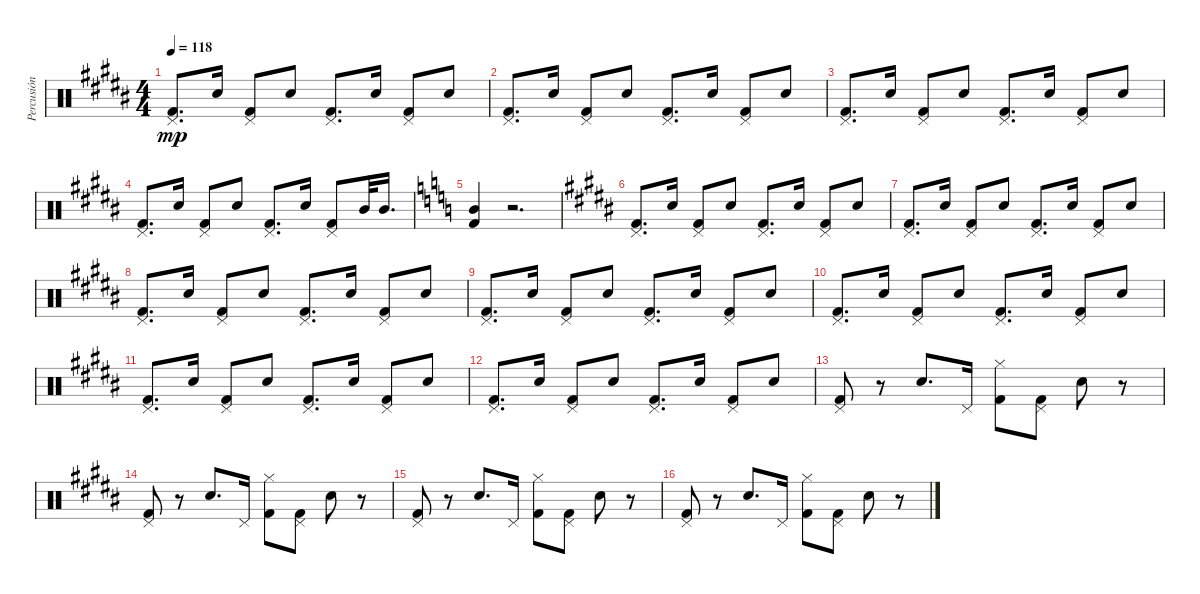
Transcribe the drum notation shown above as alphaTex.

\track ("Percusión" "Percusión") {instrument percussion}
\staff {score}
\articulation defaults
\ts (4 4)
\tempo 118
\clef neutral
\ks b
("Pedal Hi-Hat (hit)" "Kick (hit) 2").8{d dy mp} "Snare (hit) 2".16 ("Pedal Hi-Hat (hit)" "Kick (hit) 2").8 "Snare (hit) 2".8 ("Pedal Hi-Hat (hit)" "Kick (hit) 2").8{d} "Snare (hit) 2".16 ("Pedal Hi-Hat (hit)" "Kick (hit) 2").8 "Snare (hit) 2".8 |
("Pedal Hi-Hat (hit)" "Kick (hit) 2").8{d} "Snare (hit) 2".16 ("Pedal Hi-Hat (hit)" "Kick (hit) 2").8 "Snare (hit) 2".8 ("Pedal Hi-Hat (hit)" "Kick (hit) 2").8{d} "Snare (hit) 2".16 ("Pedal Hi-Hat (hit)" "Kick (hit) 2").8 "Snare (hit) 2".8 |
("Pedal Hi-Hat (hit)" "Kick (hit) 2").8{d} "Snare (hit) 2".16 ("Pedal Hi-Hat (hit)" "Kick (hit) 2").8 "Snare (hit) 2".8 ("Pedal Hi-Hat (hit)" "Kick (hit) 2").8{d} "Snare (hit) 2".16 ("Pedal Hi-Hat (hit)" "Kick (hit) 2").8 "Snare (hit) 2".8 |
("Pedal Hi-Hat (hit)" "Kick (hit) 2").8{d} "Snare (hit) 2".16 ("Pedal Hi-Hat (hit)" "Kick (hit) 2").8 "Snare (hit) 2".8 ("Pedal Hi-Hat (hit)" "Kick (hit) 2").8{d} "Snare (hit) 2".16 ("Pedal Hi-Hat (hit)" "Kick (hit) 2").8 "Mid Tom (hit)".32 "Mid Tom (hit)".16{d} |
\ks c
("Mid Tom (hit)" "Kick (hit) 2").4 r.2{d} |
\ks b
("Pedal Hi-Hat (hit)" "Kick (hit) 2").8{d} "Snare (hit) 2".16 ("Pedal Hi-Hat (hit)" "Kick (hit) 2").8 "Snare (hit) 2".8 ("Pedal Hi-Hat (hit)" "Kick (hit) 2").8{d} "Snare (hit) 2".16 ("Pedal Hi-Hat (hit)" "Kick (hit) 2").8 "Snare (hit) 2".8 |
("Pedal Hi-Hat (hit)" "Kick (hit) 2").8{d} "Snare (hit) 2".16 ("Pedal Hi-Hat (hit)" "Kick (hit) 2").8 "Snare (hit) 2".8 ("Pedal Hi-Hat (hit)" "Kick (hit) 2").8{d} "Snare (hit) 2".16 ("Pedal Hi-Hat (hit)" "Kick (hit) 2").8 "Snare (hit) 2".8 |
("Pedal Hi-Hat (hit)" "Kick (hit) 2").8{d} "Snare (hit) 2".16 ("Pedal Hi-Hat (hit)" "Kick (hit) 2").8 "Snare (hit) 2".8 ("Pedal Hi-Hat (hit)" "Kick (hit) 2").8{d} "Snare (hit) 2".16 ("Pedal Hi-Hat (hit)" "Kick (hit) 2").8 "Snare (hit) 2".8 |
("Pedal Hi-Hat (hit)" "Kick (hit) 2").8{d} "Snare (hit) 2".16 ("Pedal Hi-Hat (hit)" "Kick (hit) 2").8 "Snare (hit) 2".8 ("Pedal Hi-Hat (hit)" "Kick (hit) 2").8{d} "Snare (hit) 2".16 ("Pedal Hi-Hat (hit)" "Kick (hit) 2").8 "Snare (hit) 2".8 |
("Pedal Hi-Hat (hit)" "Kick (hit) 2").8{d} "Snare (hit) 2".16 ("Pedal Hi-Hat (hit)" "Kick (hit) 2").8 "Snare (hit) 2".8 ("Pedal Hi-Hat (hit)" "Kick (hit) 2").8{d} "Snare (hit) 2".16 ("Pedal Hi-Hat (hit)" "Kick (hit) 2").8 "Snare (hit) 2".8 |
("Pedal Hi-Hat (hit)" "Kick (hit) 2").8{d} "Snare (hit) 2".16 ("Pedal Hi-Hat (hit)" "Kick (hit) 2").8 "Snare (hit) 2".8 ("Pedal Hi-Hat (hit)" "Kick (hit) 2").8{d} "Snare (hit) 2".16 ("Pedal Hi-Hat (hit)" "Kick (hit) 2").8 "Snare (hit) 2".8 |
("Pedal Hi-Hat (hit)" "Kick (hit) 2").8{d} "Snare (hit) 2".16 ("Pedal Hi-Hat (hit)" "Kick (hit) 2").8 "Snare (hit) 2".8 ("Pedal Hi-Hat (hit)" "Kick (hit) 2").8{d} "Snare (hit) 2".16 ("Pedal Hi-Hat (hit)" "Kick (hit) 2").8 "Snare (hit) 2".8 |
("Pedal Hi-Hat (hit)" "Kick (hit) 2").8 r.8 "Snare (hit) 2".8{d} "Pedal Hi-Hat (hit)".16 ("Hi-Hat (closed)" "Kick (hit) 2").8 ("Pedal Hi-Hat (hit)" "Kick (hit) 2").8 "Snare (hit) 2".8 r.8 |
("Pedal Hi-Hat (hit)" "Kick (hit) 2").8 r.8 "Snare (hit) 2".8{d} "Pedal Hi-Hat (hit)".16 ("Hi-Hat (closed)" "Kick (hit) 2").8 ("Pedal Hi-Hat (hit)" "Kick (hit) 2").8 "Snare (hit) 2".8 r.8 |
("Pedal Hi-Hat (hit)" "Kick (hit) 2").8 r.8 "Snare (hit) 2".8{d} "Pedal Hi-Hat (hit)".16 ("Hi-Hat (closed)" "Kick (hit) 2").8 ("Pedal Hi-Hat (hit)" "Kick (hit) 2").8 "Snare (hit) 2".8 r.8 |
("Pedal Hi-Hat (hit)" "Kick (hit) 2").8 r.8 "Snare (hit) 2".8{d} "Pedal Hi-Hat (hit)".16 ("Hi-Hat (closed)" "Kick (hit) 2").8 ("Pedal Hi-Hat (hit)" "Kick (hit) 2").8 "Snare (hit) 2".8 r.8
